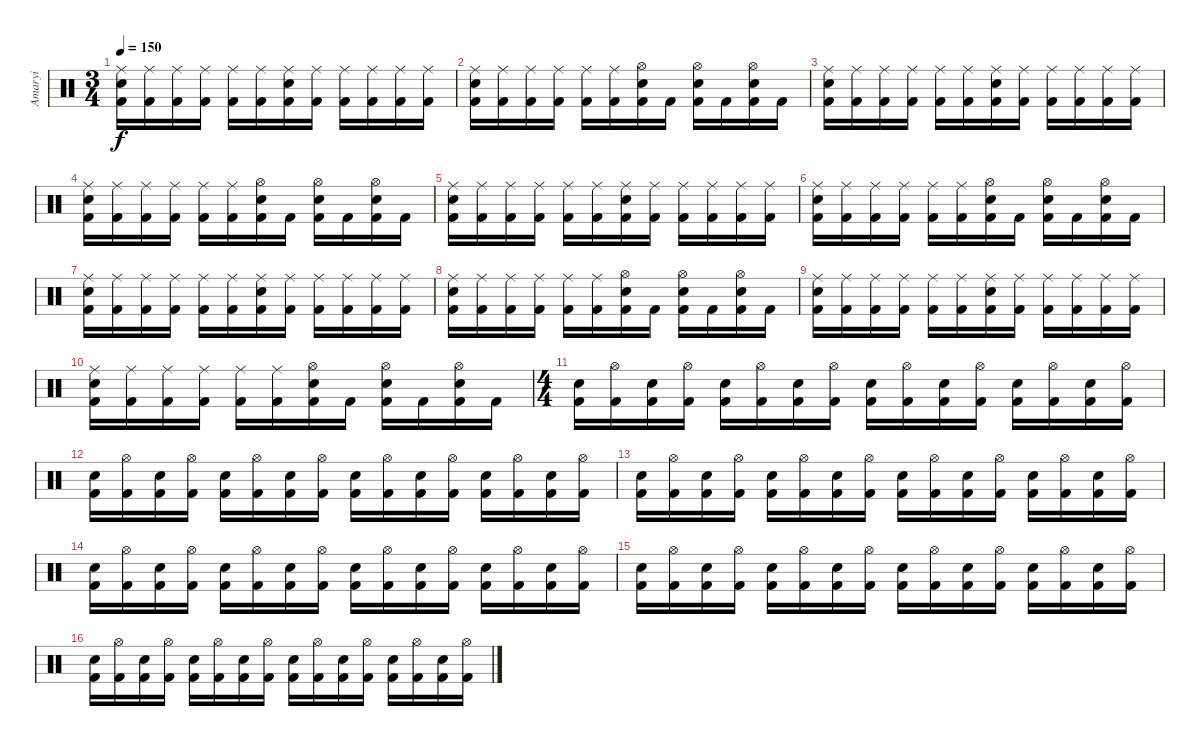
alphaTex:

\track ("Amaryi" "Amaryi") {instrument percussion}
\staff {score}
\articulation defaults
\ts (3 4)
\tempo 150
\clef neutral
\ks c
("Ride (middle)" "Snare (hit) 2" "Kick (hit) 2").16{dy f} ("Ride (middle)" "Kick (hit) 2").16 ("Ride (middle)" "Kick (hit) 2").16 ("Ride (middle)" "Kick (hit) 2").16 ("Ride (middle)" "Kick (hit) 2").16 ("Ride (middle)" "Kick (hit) 2").16 ("Ride (middle)" "Snare (hit) 2" "Kick (hit) 2").16 ("Ride (middle)" "Kick (hit) 2").16 ("Ride (middle)" "Kick (hit) 2").16 ("Ride (middle)" "Kick (hit) 2").16 ("Ride (middle)" "Kick (hit) 2").16 ("Ride (middle)" "Kick (hit) 2").16 |
("Ride (middle)" "Snare (hit) 2" "Kick (hit) 2").16 ("Ride (middle)" "Kick (hit) 2").16 ("Ride (middle)" "Kick (hit) 2").16 ("Ride (middle)" "Kick (hit) 2").16 ("Ride (middle)" "Kick (hit) 2").16 ("Ride (middle)" "Kick (hit) 2").16 ("Hi-Hat (open)" "Snare (hit) 2" "Kick (hit) 2").16 "Kick (hit) 2".16 ("Hi-Hat (open)" "Snare (hit) 2" "Kick (hit) 2").16 "Kick (hit) 2".16 ("Hi-Hat (open)" "Snare (hit) 2" "Kick (hit) 2").16 "Kick (hit) 2".16 |
("Ride (middle)" "Snare (hit) 2" "Kick (hit) 2").16 ("Ride (middle)" "Kick (hit) 2").16 ("Ride (middle)" "Kick (hit) 2").16 ("Ride (middle)" "Kick (hit) 2").16 ("Ride (middle)" "Kick (hit) 2").16 ("Ride (middle)" "Kick (hit) 2").16 ("Ride (middle)" "Snare (hit) 2" "Kick (hit) 2").16 ("Ride (middle)" "Kick (hit) 2").16 ("Ride (middle)" "Kick (hit) 2").16 ("Ride (middle)" "Kick (hit) 2").16 ("Ride (middle)" "Kick (hit) 2").16 ("Ride (middle)" "Kick (hit) 2").16 |
("Ride (middle)" "Snare (hit) 2" "Kick (hit) 2").16 ("Ride (middle)" "Kick (hit) 2").16 ("Ride (middle)" "Kick (hit) 2").16 ("Ride (middle)" "Kick (hit) 2").16 ("Ride (middle)" "Kick (hit) 2").16 ("Ride (middle)" "Kick (hit) 2").16 ("Hi-Hat (open)" "Snare (hit) 2" "Kick (hit) 2").16 "Kick (hit) 2".16 ("Hi-Hat (open)" "Snare (hit) 2" "Kick (hit) 2").16 "Kick (hit) 2".16 ("Hi-Hat (open)" "Snare (hit) 2" "Kick (hit) 2").16 "Kick (hit) 2".16 |
("Ride (middle)" "Snare (hit) 2" "Kick (hit) 2").16 ("Ride (middle)" "Kick (hit) 2").16 ("Ride (middle)" "Kick (hit) 2").16 ("Ride (middle)" "Kick (hit) 2").16 ("Ride (middle)" "Kick (hit) 2").16 ("Ride (middle)" "Kick (hit) 2").16 ("Ride (middle)" "Snare (hit) 2" "Kick (hit) 2").16 ("Ride (middle)" "Kick (hit) 2").16 ("Ride (middle)" "Kick (hit) 2").16 ("Ride (middle)" "Kick (hit) 2").16 ("Ride (middle)" "Kick (hit) 2").16 ("Ride (middle)" "Kick (hit) 2").16 |
("Ride (middle)" "Snare (hit) 2" "Kick (hit) 2").16 ("Ride (middle)" "Kick (hit) 2").16 ("Ride (middle)" "Kick (hit) 2").16 ("Ride (middle)" "Kick (hit) 2").16 ("Ride (middle)" "Kick (hit) 2").16 ("Ride (middle)" "Kick (hit) 2").16 ("Hi-Hat (open)" "Snare (hit) 2" "Kick (hit) 2").16 "Kick (hit) 2".16 ("Hi-Hat (open)" "Snare (hit) 2" "Kick (hit) 2").16 "Kick (hit) 2".16 ("Hi-Hat (open)" "Snare (hit) 2" "Kick (hit) 2").16 "Kick (hit) 2".16 |
("Ride (middle)" "Snare (hit) 2" "Kick (hit) 2").16 ("Ride (middle)" "Kick (hit) 2").16 ("Ride (middle)" "Kick (hit) 2").16 ("Ride (middle)" "Kick (hit) 2").16 ("Ride (middle)" "Kick (hit) 2").16 ("Ride (middle)" "Kick (hit) 2").16 ("Ride (middle)" "Snare (hit) 2" "Kick (hit) 2").16 ("Ride (middle)" "Kick (hit) 2").16 ("Ride (middle)" "Kick (hit) 2").16 ("Ride (middle)" "Kick (hit) 2").16 ("Ride (middle)" "Kick (hit) 2").16 ("Ride (middle)" "Kick (hit) 2").16 |
("Ride (middle)" "Snare (hit) 2" "Kick (hit) 2").16 ("Ride (middle)" "Kick (hit) 2").16 ("Ride (middle)" "Kick (hit) 2").16 ("Ride (middle)" "Kick (hit) 2").16 ("Ride (middle)" "Kick (hit) 2").16 ("Ride (middle)" "Kick (hit) 2").16 ("Hi-Hat (open)" "Snare (hit) 2" "Kick (hit) 2").16 "Kick (hit) 2".16 ("Hi-Hat (open)" "Snare (hit) 2" "Kick (hit) 2").16 "Kick (hit) 2".16 ("Hi-Hat (open)" "Snare (hit) 2" "Kick (hit) 2").16 "Kick (hit) 2".16 |
("Ride (middle)" "Snare (hit) 2" "Kick (hit) 2").16 ("Ride (middle)" "Kick (hit) 2").16 ("Ride (middle)" "Kick (hit) 2").16 ("Ride (middle)" "Kick (hit) 2").16 ("Ride (middle)" "Kick (hit) 2").16 ("Ride (middle)" "Kick (hit) 2").16 ("Ride (middle)" "Snare (hit) 2" "Kick (hit) 2").16 ("Ride (middle)" "Kick (hit) 2").16 ("Ride (middle)" "Kick (hit) 2").16 ("Ride (middle)" "Kick (hit) 2").16 ("Ride (middle)" "Kick (hit) 2").16 ("Ride (middle)" "Kick (hit) 2").16 |
("Ride (middle)" "Snare (hit) 2" "Kick (hit) 2").16 ("Ride (middle)" "Kick (hit) 2").16 ("Ride (middle)" "Kick (hit) 2").16 ("Ride (middle)" "Kick (hit) 2").16 ("Ride (middle)" "Kick (hit) 2").16 ("Ride (middle)" "Kick (hit) 2").16 ("Hi-Hat (open)" "Snare (hit) 2" "Kick (hit) 2").16 "Kick (hit) 2".16 ("Hi-Hat (open)" "Snare (hit) 2" "Kick (hit) 2").16 "Kick (hit) 2".16 ("Hi-Hat (open)" "Snare (hit) 2" "Kick (hit) 2").16 "Kick (hit) 2".16 |
\ts (4 4)
("Snare (hit) 2" "Kick (hit) 2").16 ("Hi-Hat (open)" "Kick (hit) 2").16 ("Snare (hit) 2" "Kick (hit) 2").16 ("Hi-Hat (open)" "Kick (hit) 2").16 ("Snare (hit) 2" "Kick (hit) 2").16 ("Hi-Hat (open)" "Kick (hit) 2").16 ("Snare (hit) 2" "Kick (hit) 2").16 ("Hi-Hat (open)" "Kick (hit) 2").16 ("Snare (hit) 2" "Kick (hit) 2").16 ("Hi-Hat (open)" "Kick (hit) 2").16 ("Snare (hit) 2" "Kick (hit) 2").16 ("Hi-Hat (open)" "Kick (hit) 2").16 ("Snare (hit) 2" "Kick (hit) 2").16 ("Hi-Hat (open)" "Kick (hit) 2").16 ("Snare (hit) 2" "Kick (hit) 2").16 ("Hi-Hat (open)" "Kick (hit) 2").16 |
("Snare (hit) 2" "Kick (hit) 2").16 ("Hi-Hat (open)" "Kick (hit) 2").16 ("Snare (hit) 2" "Kick (hit) 2").16 ("Hi-Hat (open)" "Kick (hit) 2").16 ("Snare (hit) 2" "Kick (hit) 2").16 ("Hi-Hat (open)" "Kick (hit) 2").16 ("Snare (hit) 2" "Kick (hit) 2").16 ("Hi-Hat (open)" "Kick (hit) 2").16 ("Snare (hit) 2" "Kick (hit) 2").16 ("Hi-Hat (open)" "Kick (hit) 2").16 ("Snare (hit) 2" "Kick (hit) 2").16 ("Hi-Hat (open)" "Kick (hit) 2").16 ("Snare (hit) 2" "Kick (hit) 2").16 ("Hi-Hat (open)" "Kick (hit) 2").16 ("Snare (hit) 2" "Kick (hit) 2").16 ("Hi-Hat (open)" "Kick (hit) 2").16 |
("Snare (hit) 2" "Kick (hit) 2").16 ("Hi-Hat (open)" "Kick (hit) 2").16 ("Snare (hit) 2" "Kick (hit) 2").16 ("Hi-Hat (open)" "Kick (hit) 2").16 ("Snare (hit) 2" "Kick (hit) 2").16 ("Hi-Hat (open)" "Kick (hit) 2").16 ("Snare (hit) 2" "Kick (hit) 2").16 ("Hi-Hat (open)" "Kick (hit) 2").16 ("Snare (hit) 2" "Kick (hit) 2").16 ("Hi-Hat (open)" "Kick (hit) 2").16 ("Snare (hit) 2" "Kick (hit) 2").16 ("Hi-Hat (open)" "Kick (hit) 2").16 ("Snare (hit) 2" "Kick (hit) 2").16 ("Hi-Hat (open)" "Kick (hit) 2").16 ("Snare (hit) 2" "Kick (hit) 2").16 ("Hi-Hat (open)" "Kick (hit) 2").16 |
("Snare (hit) 2" "Kick (hit) 2").16 ("Hi-Hat (open)" "Kick (hit) 2").16 ("Snare (hit) 2" "Kick (hit) 2").16 ("Hi-Hat (open)" "Kick (hit) 2").16 ("Snare (hit) 2" "Kick (hit) 2").16 ("Hi-Hat (open)" "Kick (hit) 2").16 ("Snare (hit) 2" "Kick (hit) 2").16 ("Hi-Hat (open)" "Kick (hit) 2").16 ("Snare (hit) 2" "Kick (hit) 2").16 ("Hi-Hat (open)" "Kick (hit) 2").16 ("Snare (hit) 2" "Kick (hit) 2").16 ("Hi-Hat (open)" "Kick (hit) 2").16 ("Snare (hit) 2" "Kick (hit) 2").16 ("Hi-Hat (open)" "Kick (hit) 2").16 ("Snare (hit) 2" "Kick (hit) 2").16 ("Hi-Hat (open)" "Kick (hit) 2").16 |
("Snare (hit) 2" "Kick (hit) 2").16 ("Hi-Hat (open)" "Kick (hit) 2").16 ("Snare (hit) 2" "Kick (hit) 2").16 ("Hi-Hat (open)" "Kick (hit) 2").16 ("Snare (hit) 2" "Kick (hit) 2").16 ("Hi-Hat (open)" "Kick (hit) 2").16 ("Snare (hit) 2" "Kick (hit) 2").16 ("Hi-Hat (open)" "Kick (hit) 2").16 ("Snare (hit) 2" "Kick (hit) 2").16 ("Hi-Hat (open)" "Kick (hit) 2").16 ("Snare (hit) 2" "Kick (hit) 2").16 ("Hi-Hat (open)" "Kick (hit) 2").16 ("Snare (hit) 2" "Kick (hit) 2").16 ("Hi-Hat (open)" "Kick (hit) 2").16 ("Snare (hit) 2" "Kick (hit) 2").16 ("Hi-Hat (open)" "Kick (hit) 2").16 |
("Snare (hit) 2" "Kick (hit) 2").16 ("Hi-Hat (open)" "Kick (hit) 2").16 ("Snare (hit) 2" "Kick (hit) 2").16 ("Hi-Hat (open)" "Kick (hit) 2").16 ("Snare (hit) 2" "Kick (hit) 2").16 ("Hi-Hat (open)" "Kick (hit) 2").16 ("Snare (hit) 2" "Kick (hit) 2").16 ("Hi-Hat (open)" "Kick (hit) 2").16 ("Snare (hit) 2" "Kick (hit) 2").16 ("Hi-Hat (open)" "Kick (hit) 2").16 ("Snare (hit) 2" "Kick (hit) 2").16 ("Hi-Hat (open)" "Kick (hit) 2").16 ("Snare (hit) 2" "Kick (hit) 2").16 ("Hi-Hat (open)" "Kick (hit) 2").16 ("Snare (hit) 2" "Kick (hit) 2").16 ("Hi-Hat (open)" "Kick (hit) 2").16
